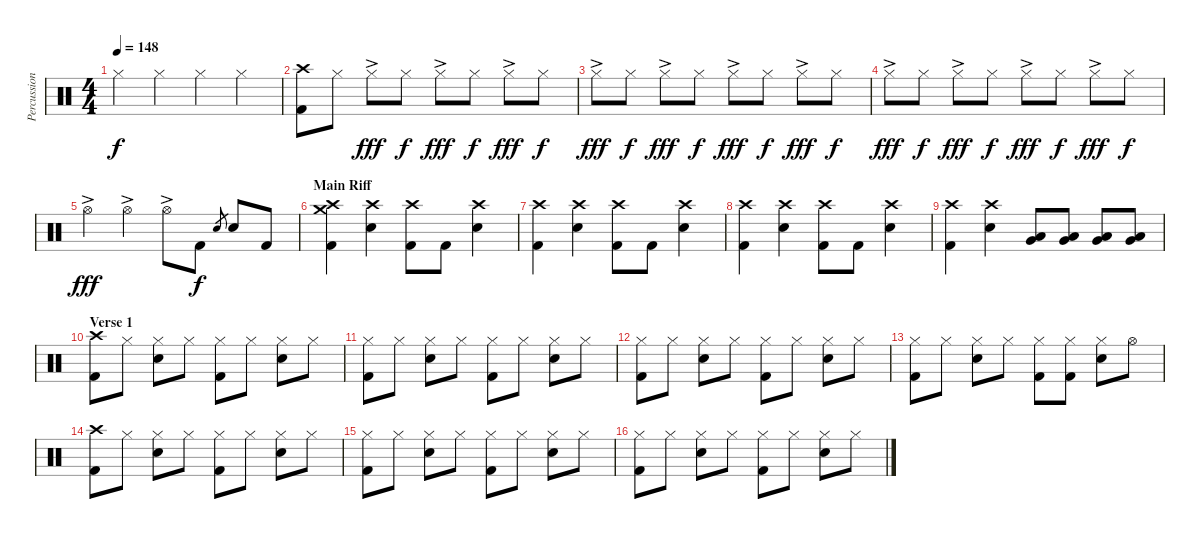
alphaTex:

\track ("Percussion" "Percussion") {instrument percussion}
\staff {score}
\articulation defaults
\ts (4 4)
\tempo 148
\clef neutral
\ks c "Hi-Hat (closed)".4{dy f} "Hi-Hat (closed)".4 "Hi-Hat (closed)".4 "Hi-Hat (closed)".4
|
("Crash high (hit)" "Kick (hit) 2").8 "Hi-Hat (closed)".8 "Hi-Hat (closed)"{ac}.8{dy fff} "Hi-Hat (closed)".8{dy f} "Hi-Hat (closed)"{ac}.8{dy fff} "Hi-Hat (closed)".8{dy f} "Hi-Hat (closed)"{ac}.8{dy fff} "Hi-Hat (closed)".8{dy f} |
"Hi-Hat (closed)"{ac}.8{dy fff} "Hi-Hat (closed)".8{dy f} "Hi-Hat (closed)"{ac}.8{dy fff} "Hi-Hat (closed)".8{dy f} "Hi-Hat (closed)"{ac}.8{dy fff} "Hi-Hat (closed)".8{dy f} "Hi-Hat (closed)"{ac}.8{dy fff} "Hi-Hat (closed)".8{dy f} |
"Hi-Hat (closed)"{ac}.8{dy fff} "Hi-Hat (closed)".8{dy f} "Hi-Hat (closed)"{ac}.8{dy fff} "Hi-Hat (closed)".8{dy f} "Hi-Hat (closed)"{ac}.8{dy fff} "Hi-Hat (closed)".8{dy f} "Hi-Hat (closed)"{ac}.8{dy fff} "Hi-Hat (closed)".8{dy f} |
"Hi-Hat (open)"{ac}.4{dy fff} "Hi-Hat (open)"{ac}.4 "Hi-Hat (open)"{ac}.8 "Kick (hit) 2".8{dy f} "Snare (hit) 2".8{gr} "Snare (hit) 2".8 "Kick (hit) 2".8 |
\section ("" "Main Riff")
("Crash high (hit)" "Crash medium (hit)" "Kick (hit) 2").4 ("Crash high (hit)" "Snare (hit) 2").4 ("Crash high (hit)" "Kick (hit) 2").8 "Kick (hit) 2".8 ("Crash high (hit)" "Snare (hit) 2").4 |
("Crash high (hit)" "Kick (hit) 2").4 ("Crash high (hit)" "Snare (hit) 2").4 ("Crash high (hit)" "Kick (hit) 2").8 "Kick (hit) 2".8 ("Crash high (hit)" "Snare (hit) 2").4 |
("Crash high (hit)" "Kick (hit) 2").4 ("Crash high (hit)" "Snare (hit) 2").4 ("Crash high (hit)" "Kick (hit) 2").8 "Kick (hit) 2".8 ("Crash high (hit)" "Snare (hit) 2").4 |
("Crash high (hit)" "Kick (hit) 2").4 ("Crash high (hit)" "Snare (hit) 2").4 ("Low Tom (hit)" "Very Low Tom (hit)").8 ("Low Tom (hit)" "Very Low Tom (hit)").8 ("Low Tom (hit)" "Very Low Tom (hit)").8 ("Low Tom (hit)" "Very Low Tom (hit)").8 |
\section ("" "Verse 1")
("Crash high (hit)" "Kick (hit) 2").8 "Hi-Hat (closed)".8 ("Hi-Hat (closed)" "Snare (hit) 2").8 "Hi-Hat (closed)".8 ("Hi-Hat (closed)" "Kick (hit) 2").8 "Hi-Hat (closed)".8 ("Hi-Hat (closed)" "Snare (hit) 2").8 "Hi-Hat (closed)".8 |
("Hi-Hat (closed)" "Kick (hit) 2").8 "Hi-Hat (closed)".8 ("Hi-Hat (closed)" "Snare (hit) 2").8 "Hi-Hat (closed)".8 ("Hi-Hat (closed)" "Kick (hit) 2").8 "Hi-Hat (closed)".8 ("Hi-Hat (closed)" "Snare (hit) 2").8 "Hi-Hat (closed)".8 |
("Hi-Hat (closed)" "Kick (hit) 2").8 "Hi-Hat (closed)".8 ("Hi-Hat (closed)" "Snare (hit) 2").8 "Hi-Hat (closed)".8 ("Hi-Hat (closed)" "Kick (hit) 2").8 "Hi-Hat (closed)".8 ("Hi-Hat (closed)" "Snare (hit) 2").8 "Hi-Hat (closed)".8 |
("Hi-Hat (closed)" "Kick (hit) 2").8 "Hi-Hat (closed)".8 ("Hi-Hat (closed)" "Snare (hit) 2").8 "Hi-Hat (closed)".8 ("Hi-Hat (closed)" "Kick (hit) 2").8 ("Hi-Hat (closed)" "Kick (hit) 2").8 ("Hi-Hat (closed)" "Snare (hit) 2").8 "Hi-Hat (open)".8 |
("Crash high (hit)" "Kick (hit) 2").8 "Hi-Hat (closed)".8 ("Hi-Hat (closed)" "Snare (hit) 2").8 "Hi-Hat (closed)".8 ("Hi-Hat (closed)" "Kick (hit) 2").8 "Hi-Hat (closed)".8 ("Hi-Hat (closed)" "Snare (hit) 2").8 "Hi-Hat (closed)".8 |
("Hi-Hat (closed)" "Kick (hit) 2").8 "Hi-Hat (closed)".8 ("Hi-Hat (closed)" "Snare (hit) 2").8 "Hi-Hat (closed)".8 ("Hi-Hat (closed)" "Kick (hit) 2").8 "Hi-Hat (closed)".8 ("Hi-Hat (closed)" "Snare (hit) 2").8 "Hi-Hat (closed)".8 |
("Hi-Hat (closed)" "Kick (hit) 2").8 "Hi-Hat (closed)".8 ("Hi-Hat (closed)" "Snare (hit) 2").8 "Hi-Hat (closed)".8 ("Hi-Hat (closed)" "Kick (hit) 2").8 "Hi-Hat (closed)".8 ("Hi-Hat (closed)" "Snare (hit) 2").8 "Hi-Hat (closed)".8
